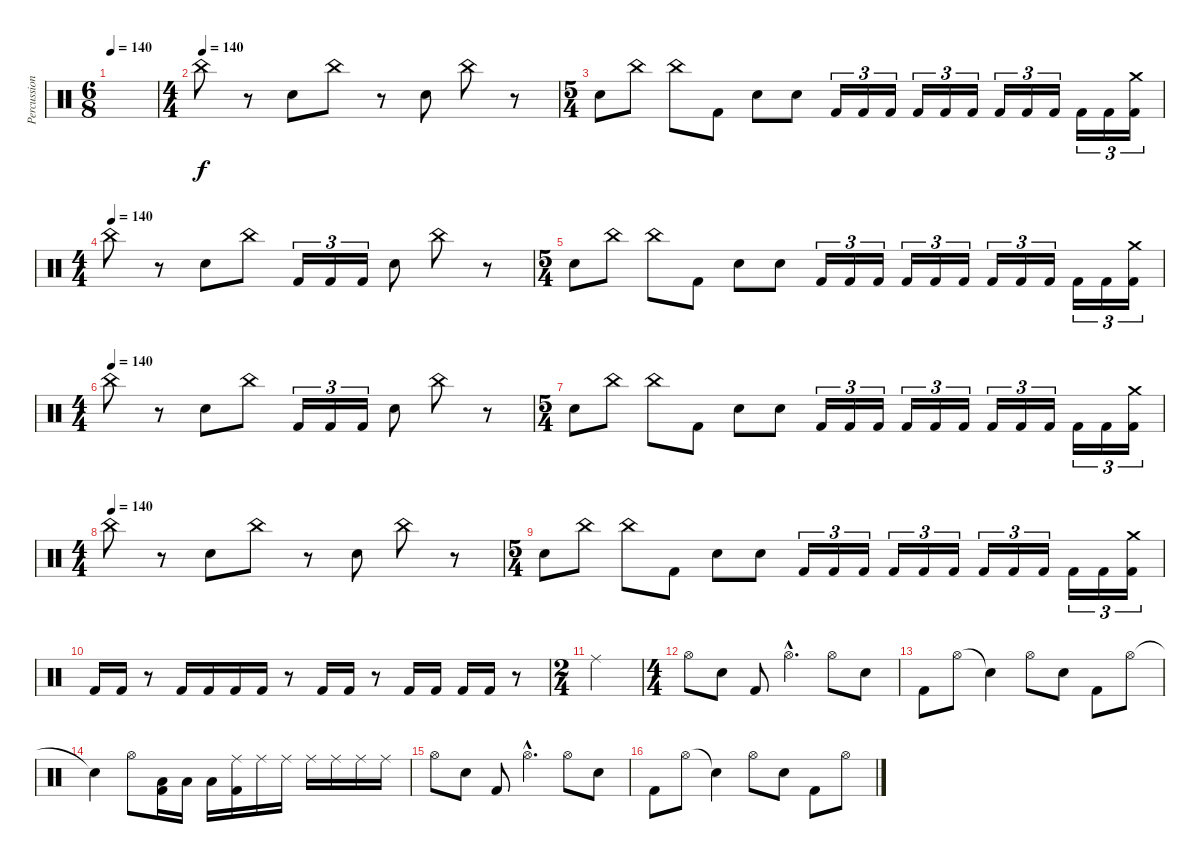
\track ("Percussion" "Percussion") {instrument percussion}
\staff {score}
\articulation defaults
\ts (6 8)
\tempo 140
\clef neutral
\ks c
|
\ts (4 4)
\tempo (140)
"China (hit)".8 r.8 "Electric Snare (hit)".8 "China (hit)".8 r.8 "Electric Snare (hit)".8 "China (hit)".8 r.8 |
\ts (5 4)
"Electric Snare (hit)".8 "China (hit)".8 "China (hit)".8 "Kick (hit) 2".8 "Electric Snare (hit)".8 "Electric Snare (hit)".8 "Kick (hit) 2".16{tu (3 2)} "Kick (hit) 2".16{tu (3 2)} "Kick (hit) 2".16{tu (3 2)} "Kick (hit) 2".16{tu (3 2)} "Kick (hit) 2".16{tu (3 2)} "Kick (hit) 2".16{tu (3 2)} "Kick (hit) 2".16{tu (3 2)} "Kick (hit) 2".16{tu (3 2)} "Kick (hit) 2".16{tu (3 2)} "Kick (hit) 2".16{tu (3 2)} "Kick (hit) 2".16{tu (3 2)} ("Crash medium (hit)" "Kick (hit) 2").16{tu (3 2)} |
\ts (4 4)
\tempo (140)
"China (hit)".8 r.8 "Electric Snare (hit)".8 "China (hit)".8 "Kick (hit) 2".16{tu (3 2)} "Kick (hit) 2".16{tu (3 2)} "Kick (hit) 2".16{tu (3 2)} "Electric Snare (hit)".8 "China (hit)".8 r.8 |
\ts (5 4)
"Electric Snare (hit)".8 "China (hit)".8 "China (hit)".8 "Kick (hit) 2".8 "Electric Snare (hit)".8 "Electric Snare (hit)".8 "Kick (hit) 2".16{tu (3 2)} "Kick (hit) 2".16{tu (3 2)} "Kick (hit) 2".16{tu (3 2)} "Kick (hit) 2".16{tu (3 2)} "Kick (hit) 2".16{tu (3 2)} "Kick (hit) 2".16{tu (3 2)} "Kick (hit) 2".16{tu (3 2)} "Kick (hit) 2".16{tu (3 2)} "Kick (hit) 2".16{tu (3 2)} "Kick (hit) 2".16{tu (3 2)} "Kick (hit) 2".16{tu (3 2)} ("Crash medium (hit)" "Kick (hit) 2").16{tu (3 2)} |
\ts (4 4)
\tempo (140)
"China (hit)".8 r.8 "Electric Snare (hit)".8 "China (hit)".8 "Kick (hit) 2".16{tu (3 2)} "Kick (hit) 2".16{tu (3 2)} "Kick (hit) 2".16{tu (3 2)} "Electric Snare (hit)".8 "China (hit)".8 r.8 |
\ts (5 4)
"Electric Snare (hit)".8 "China (hit)".8 "China (hit)".8 "Kick (hit) 2".8 "Electric Snare (hit)".8 "Electric Snare (hit)".8 "Kick (hit) 2".16{tu (3 2)} "Kick (hit) 2".16{tu (3 2)} "Kick (hit) 2".16{tu (3 2)} "Kick (hit) 2".16{tu (3 2)} "Kick (hit) 2".16{tu (3 2)} "Kick (hit) 2".16{tu (3 2)} "Kick (hit) 2".16{tu (3 2)} "Kick (hit) 2".16{tu (3 2)} "Kick (hit) 2".16{tu (3 2)} "Kick (hit) 2".16{tu (3 2)} "Kick (hit) 2".16{tu (3 2)} ("Crash medium (hit)" "Kick (hit) 2").16{tu (3 2)} |
\ts (4 4)
\tempo (140)
"China (hit)".8 r.8 "Electric Snare (hit)".8 "China (hit)".8 r.8 "Electric Snare (hit)".8 "China (hit)".8 r.8 |
\ts (5 4)
"Electric Snare (hit)".8 "China (hit)".8 "China (hit)".8 "Kick (hit) 2".8 "Electric Snare (hit)".8 "Electric Snare (hit)".8 "Kick (hit) 2".16{tu (3 2)} "Kick (hit) 2".16{tu (3 2)} "Kick (hit) 2".16{tu (3 2)} "Kick (hit) 2".16{tu (3 2)} "Kick (hit) 2".16{tu (3 2)} "Kick (hit) 2".16{tu (3 2)} "Kick (hit) 2".16{tu (3 2)} "Kick (hit) 2".16{tu (3 2)} "Kick (hit) 2".16{tu (3 2)} "Kick (hit) 2".16{tu (3 2)} "Kick (hit) 2".16{tu (3 2)} ("Crash medium (hit)" "Kick (hit) 2").16{tu (3 2)} |
"Kick (hit) 2".16 "Kick (hit) 2".16 r.8 "Kick (hit) 2".16 "Kick (hit) 2".16 "Kick (hit) 2".16 "Kick (hit) 2".16 r.8 "Kick (hit) 2".16 "Kick (hit) 2".16 r.8 "Kick (hit) 2".16 "Kick (hit) 2".16 "Kick (hit) 2".16 "Kick (hit) 2".16 r.8 |
\ts (2 4)
"Ride (middle)".2 |
\ts (4 4)
"Hi-Hat (open)".8 "Electric Snare (hit)".8 "Kick (hit) 2".8 "Hi-Hat (open)"{hac}.4{d} "Hi-Hat (open)".8 "Electric Snare (hit)".8 |
"Kick (hit) 2".8 "Hi-Hat (open)".8 "Snare (hit)"{t}.4 "Hi-Hat (open)".8 "Electric Snare (hit)".8 "Kick (hit) 2".8 "Hi-Hat (open)".8 |
"Snare (hit)"{t}.4 "Hi-Hat (open)".8 ("Low Tom (hit)" "Kick (hit) 2").16 "Low Tom (hit)".16 "Low Tom (hit)".16 ("Ride (middle)" "Kick (hit) 2").16 "Ride (middle)".16 "Ride (middle)".16 "Ride (middle)".16 "Ride (middle)".16 "Ride (middle)".16 "Ride (middle)".16 |
"Hi-Hat (open)".8 "Electric Snare (hit)".8 "Kick (hit) 2".8 "Hi-Hat (open)"{hac}.4{d} "Hi-Hat (open)".8 "Electric Snare (hit)".8 |
"Kick (hit) 2".8 "Hi-Hat (open)".8 "Snare (hit)"{t}.4 "Hi-Hat (open)".8 "Electric Snare (hit)".8 "Kick (hit) 2".8 "Hi-Hat (open)".8
